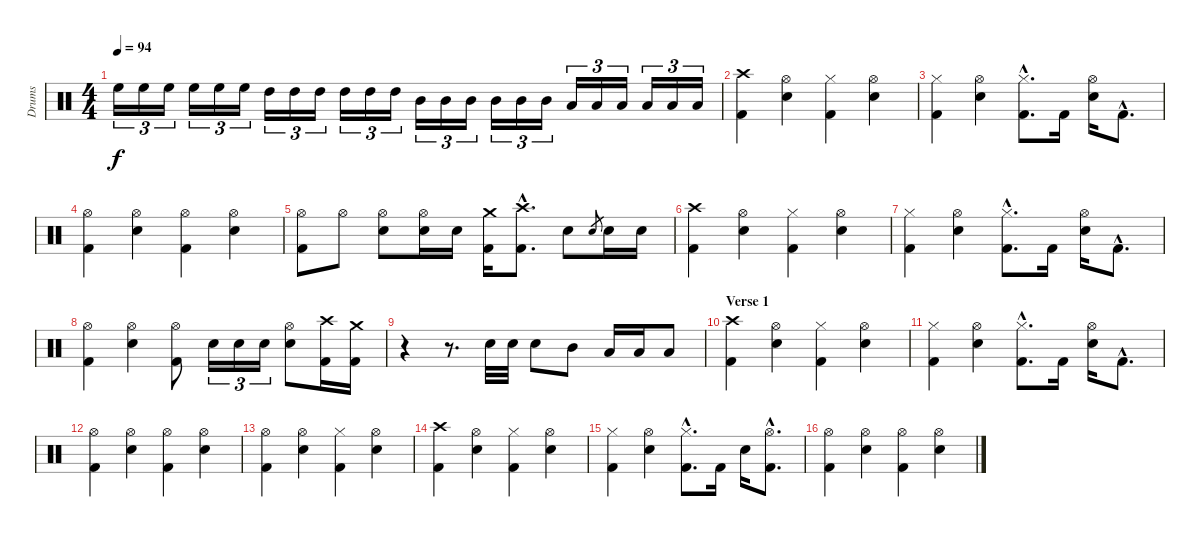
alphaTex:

\track ("Drums" "Drums") {instrument percussion}
\staff {score}
\articulation defaults
\ts (4 4)
\tempo 94
\clef neutral
\ks c "High Floor Tom (hit)".16{tu (3 2) dy f} "High Floor Tom (hit)".16{tu (3 2)} "High Floor Tom (hit)".16{tu (3 2)} "High Floor Tom (hit)".16{tu (3 2)} "High Floor Tom (hit)".16{tu (3 2)} "High Floor Tom (hit)".16{tu (3 2)} "High Tom (hit)".16{tu (3 2)} "High Tom (hit)".16{tu (3 2)} "High Tom (hit)".16{tu (3 2)} "High Tom (hit)".16{tu (3 2)} "High Tom (hit)".16{tu (3 2)} "High Tom (hit)".16{tu (3 2)} "Mid Tom (hit)".16{tu (3 2)} "Mid Tom (hit)".16{tu (3 2)} "Mid Tom (hit)".16{tu (3 2)} "Mid Tom (hit)".16{tu (3 2)} "Mid Tom (hit)".16{tu (3 2)} "Mid Tom (hit)".16{tu (3 2)} "Low Tom (hit)".16{tu (3 2)} "Low Tom (hit)".16{tu (3 2)} "Low Tom (hit)".16{tu (3 2)} "Low Tom (hit)".16{tu (3 2)} "Low Tom (hit)".16{tu (3 2)} "Low Tom (hit)".16{tu (3 2)}
|
("Crash high (hit)" "Kick (hit) 2").4 ("Hi-Hat (open)" "Snare (hit) 2").4 ("Hi-Hat (closed)" "Kick (hit) 2").4 ("Hi-Hat (open)" "Snare (hit) 2").4 |
("Hi-Hat (closed)" "Kick (hit) 2").4 ("Hi-Hat (open)" "Snare (hit) 2").4 ("Hi-Hat (closed)"{hac} "Kick (hit) 2"{hac}).8{d} "Kick (hit) 2".16 ("Hi-Hat (open)" "Snare (hit) 2").16 "Kick (hit) 2"{hac}.8{d} |
("Hi-Hat (open)" "Kick (hit) 2").4 ("Hi-Hat (open)" "Snare (hit) 2").4 ("Hi-Hat (open)" "Kick (hit) 2").4 ("Hi-Hat (open)" "Snare (hit) 2").4 |
("Hi-Hat (open)" "Kick (hit) 2").8 "Hi-Hat (open)".8 ("Hi-Hat (open)" "Snare (hit) 2").8 ("Hi-Hat (open)" "Snare (hit) 2").16 "Snare (hit) 2".16 ("Crash medium (hit)" "Kick (hit) 2").16 ("Crash high (hit)"{hac} "Kick (hit) 2"{hac}).8{d} "Snare (hit) 2".8 "Snare (hit) 2".8{gr} "Snare (hit) 2".16 "Snare (hit) 2".16 |
("Crash high (hit)" "Kick (hit) 2").4 ("Hi-Hat (open)" "Snare (hit) 2").4 ("Hi-Hat (closed)" "Kick (hit) 2").4 ("Hi-Hat (open)" "Snare (hit) 2").4 |
("Hi-Hat (closed)" "Kick (hit) 2").4 ("Hi-Hat (open)" "Snare (hit) 2").4 ("Hi-Hat (closed)"{hac} "Kick (hit) 2"{hac}).8{d} "Kick (hit) 2".16 ("Hi-Hat (open)" "Snare (hit) 2").16 "Kick (hit) 2"{hac}.8{d} |
("Hi-Hat (open)" "Kick (hit) 2").4 ("Hi-Hat (open)" "Snare (hit) 2").4 ("Hi-Hat (open)" "Kick (hit) 2").8 "Snare (hit) 2".16{tu (3 2)} "Snare (hit) 2".16{tu (3 2)} "Snare (hit) 2".16{tu (3 2)} ("Hi-Hat (open)" "Snare (hit) 2").8 ("Crash high (hit)" "Kick (hit) 2").16 ("Crash medium (hit)" "Kick (hit) 2").16 |
r.4 r.8{d} "Snare (hit) 2".32 "Snare (hit) 2".32 "Snare (hit) 2".8 "Mid Tom (hit)".8 "Low Tom (hit)".16 "Low Tom (hit)".16 "Low Tom (hit)".8 |
\section ("" "Verse 1")
("Crash high (hit)" "Kick (hit) 2").4 ("Hi-Hat (open)" "Snare (hit) 2").4 ("Hi-Hat (closed)" "Kick (hit) 2").4 ("Hi-Hat (open)" "Snare (hit) 2").4 |
("Hi-Hat (closed)" "Kick (hit) 2").4 ("Hi-Hat (open)" "Snare (hit) 2").4 ("Hi-Hat (closed)"{hac} "Kick (hit) 2"{hac}).8{d} "Kick (hit) 2".16 ("Hi-Hat (open)" "Snare (hit) 2").16 "Kick (hit) 2"{hac}.8{d} |
("Hi-Hat (open)" "Kick (hit) 2").4 ("Hi-Hat (open)" "Snare (hit) 2").4 ("Hi-Hat (open)" "Kick (hit) 2").4 ("Hi-Hat (open)" "Snare (hit) 2").4 |
("Hi-Hat (open)" "Kick (hit) 2").4 ("Hi-Hat (open)" "Snare (hit) 2").4 ("Hi-Hat (closed)" "Kick (hit) 2").4 ("Hi-Hat (open)" "Snare (hit) 2").4 |
("Crash high (hit)" "Kick (hit) 2").4 ("Hi-Hat (open)" "Snare (hit) 2").4 ("Hi-Hat (closed)" "Kick (hit) 2").4 ("Hi-Hat (open)" "Snare (hit) 2").4 |
("Hi-Hat (closed)" "Kick (hit) 2").4 ("Hi-Hat (open)" "Snare (hit) 2").4 ("Hi-Hat (closed)"{hac} "Kick (hit) 2"{hac}).8{d} "Kick (hit) 2".16 "Snare (hit) 2".16 ("Hi-Hat (open)"{hac} "Kick (hit) 2"{hac}).8{d} |
("Hi-Hat (open)" "Kick (hit) 2").4 ("Hi-Hat (open)" "Snare (hit) 2").4 ("Hi-Hat (open)" "Kick (hit) 2").4 ("Hi-Hat (open)" "Snare (hit) 2").4
